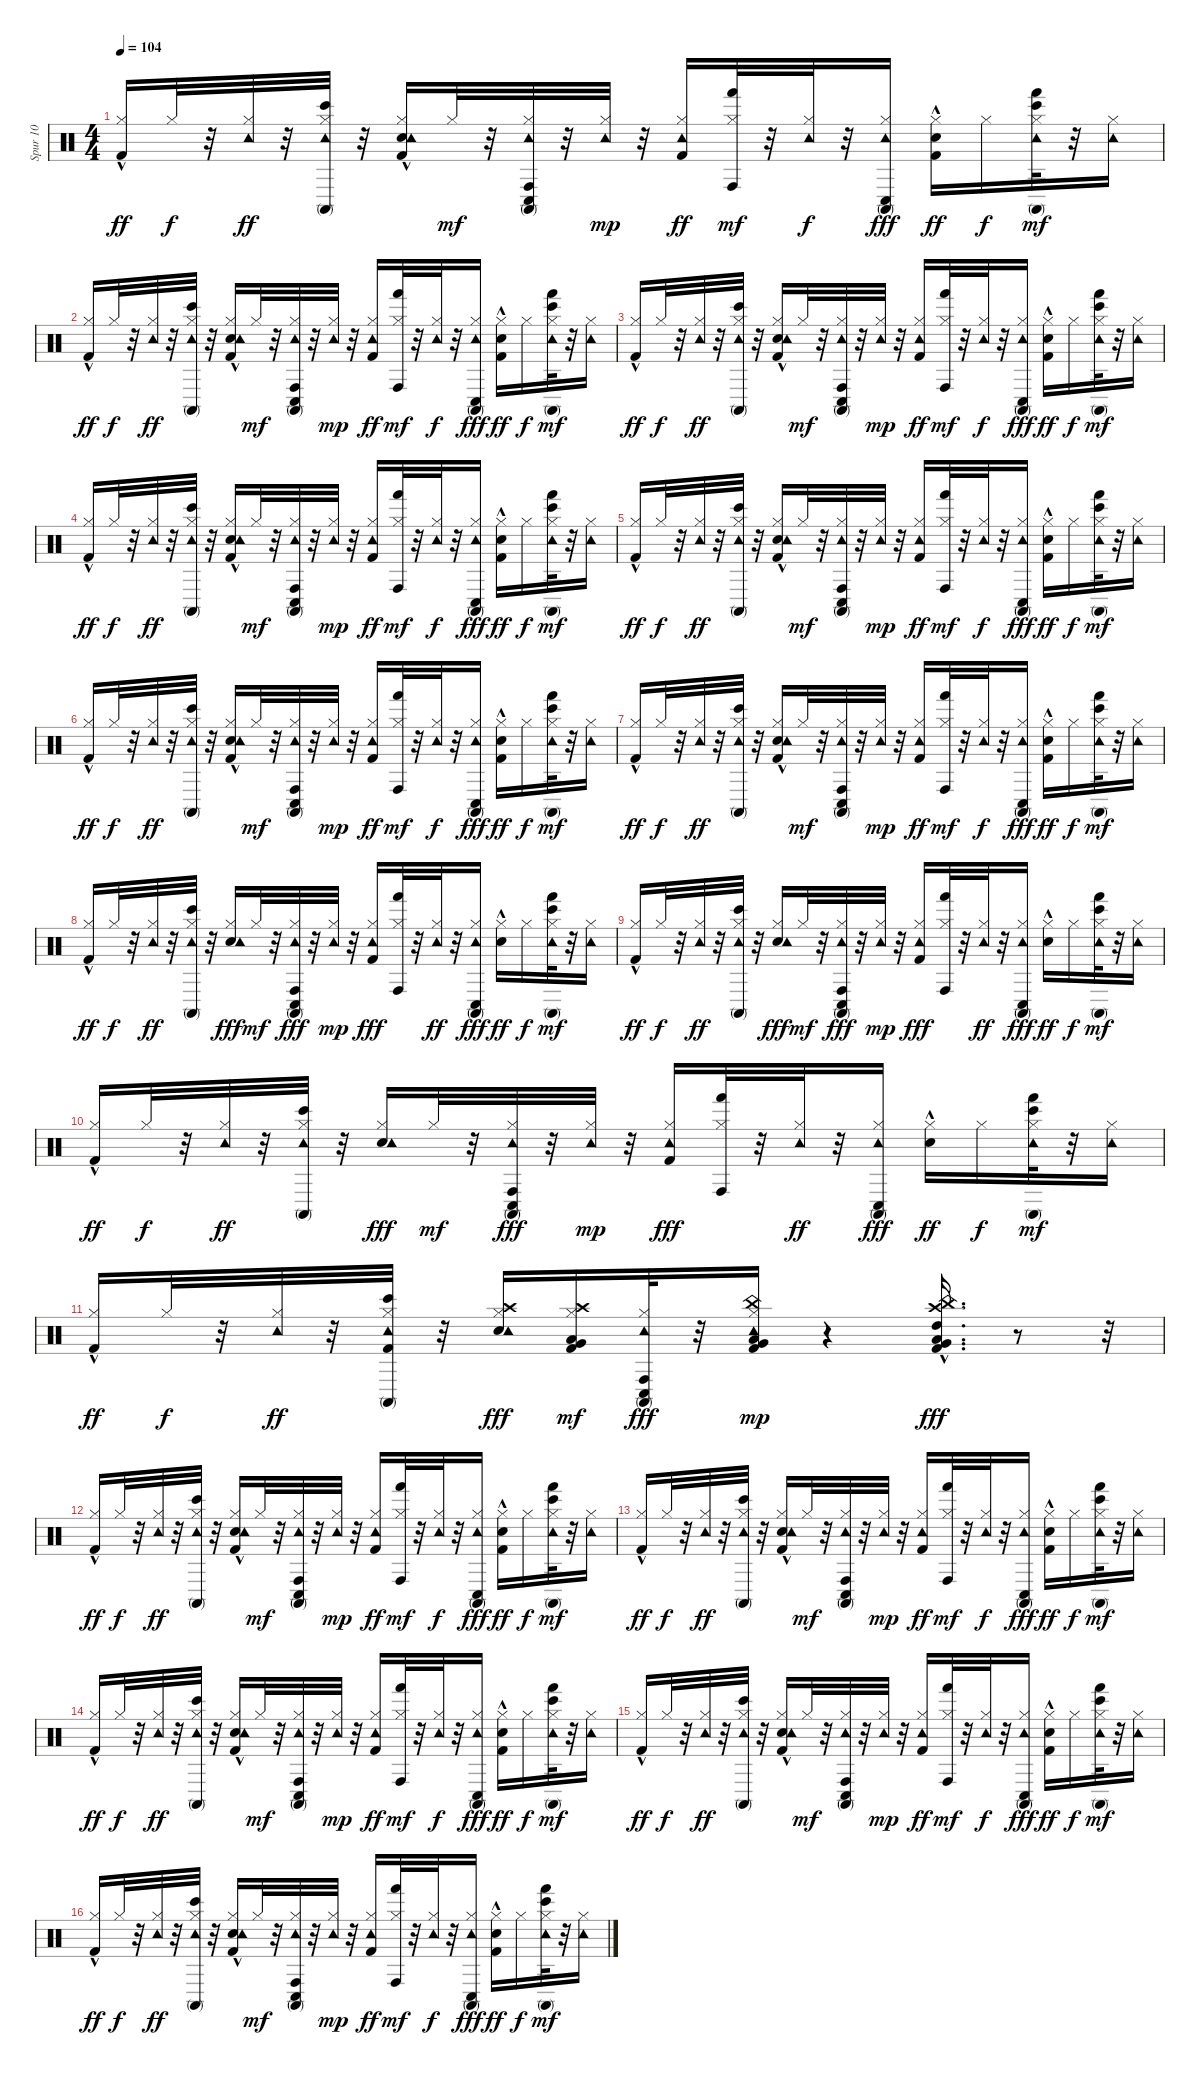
\track ("Spur 10" "Spur 10") {instrument percussion}
\staff {score}
\articulation defaults
\ts (4 4)
\tempo 104
\clef neutral
\ks c
("Kick (hit) 2"{hac} "Hi-Hat (closed)").16{dy ff} "Hi-Hat (closed)".32{dy f} r.32 ("Tambourine (hit)" "Hi-Hat (closed)").32{dy ff} r.32 ("Bongo High (hit)" "Conga high (mute)" "Tambourine (hit)" "Hi-Hat (closed)").32 r.32 ("Electric Snare (hit)" "Kick (hit) 2"{hac} "Tambourine (hit)" "Hi-Hat (closed)").16 "Hi-Hat (closed)".32{dy mf} r.32 ("Conga high (hit)" "Conga low (hit)" "Conga high (mute)" "Tambourine (hit)" "Hi-Hat (closed)").32 r.32 ("Tambourine (hit)" "Hi-Hat (closed)").32{dy mp} r.32 ("Kick (hit) 2" "Tambourine (hit)" "Hi-Hat (closed)").16{dy ff} ("Hand (hit)" "Conga high (hit)" "Hi-Hat (closed)").32{dy mf} r.32 ("Tambourine (hit)" "Hi-Hat (closed)").32{dy f} r.32 ("Conga high (mute)" "Conga low (hit)" "Tambourine (hit)" "Hi-Hat (closed)").16{dy fff} ("Electric Snare (hit)"{hac} "Kick (hit) 2" "Hi-Hat (closed)").16{dy ff} "Hi-Hat (closed)".16{dy f} ("Hand (hit)" "Bongo High (hit)" "Conga high (mute)" "Tambourine (hit)" "Hi-Hat (closed)").32{dy mf} r.32 ("Tambourine (hit)" "Hi-Hat (closed)").16 |
("Kick (hit) 2"{hac} "Hi-Hat (closed)").16{dy ff} "Hi-Hat (closed)".32{dy f} r.32 ("Tambourine (hit)" "Hi-Hat (closed)").32{dy ff} r.32 ("Bongo High (hit)" "Conga high (mute)" "Tambourine (hit)" "Hi-Hat (closed)").32 r.32 ("Electric Snare (hit)" "Kick (hit) 2"{hac} "Tambourine (hit)" "Hi-Hat (closed)").16 "Hi-Hat (closed)".32{dy mf} r.32 ("Conga high (hit)" "Conga low (hit)" "Conga high (mute)" "Tambourine (hit)" "Hi-Hat (closed)").32 r.32 ("Tambourine (hit)" "Hi-Hat (closed)").32{dy mp} r.32 ("Kick (hit) 2" "Tambourine (hit)" "Hi-Hat (closed)").16{dy ff} ("Hand (hit)" "Conga high (hit)" "Hi-Hat (closed)").32{dy mf} r.32 ("Tambourine (hit)" "Hi-Hat (closed)").32{dy f} r.32 ("Conga high (mute)" "Conga low (hit)" "Tambourine (hit)" "Hi-Hat (closed)").16{dy fff} ("Electric Snare (hit)"{hac} "Kick (hit) 2" "Hi-Hat (closed)").16{dy ff} "Hi-Hat (closed)".16{dy f} ("Hand (hit)" "Bongo High (hit)" "Conga high (mute)" "Tambourine (hit)" "Hi-Hat (closed)").32{dy mf} r.32 ("Tambourine (hit)" "Hi-Hat (closed)").16 |
("Kick (hit) 2"{hac} "Hi-Hat (closed)").16{dy ff} "Hi-Hat (closed)".32{dy f} r.32 ("Tambourine (hit)" "Hi-Hat (closed)").32{dy ff} r.32 ("Bongo High (hit)" "Conga high (mute)" "Tambourine (hit)" "Hi-Hat (closed)").32 r.32 ("Electric Snare (hit)" "Kick (hit) 2"{hac} "Tambourine (hit)" "Hi-Hat (closed)").16 "Hi-Hat (closed)".32{dy mf} r.32 ("Conga high (hit)" "Conga low (hit)" "Conga high (mute)" "Tambourine (hit)" "Hi-Hat (closed)").32 r.32 ("Tambourine (hit)" "Hi-Hat (closed)").32{dy mp} r.32 ("Kick (hit) 2" "Tambourine (hit)" "Hi-Hat (closed)").16{dy ff} ("Hand (hit)" "Conga high (hit)" "Hi-Hat (closed)").32{dy mf} r.32 ("Tambourine (hit)" "Hi-Hat (closed)").32{dy f} r.32 ("Conga high (mute)" "Conga low (hit)" "Tambourine (hit)" "Hi-Hat (closed)").16{dy fff} ("Electric Snare (hit)"{hac} "Kick (hit) 2" "Hi-Hat (closed)").16{dy ff} "Hi-Hat (closed)".16{dy f} ("Hand (hit)" "Bongo High (hit)" "Conga high (mute)" "Tambourine (hit)" "Hi-Hat (closed)").32{dy mf} r.32 ("Tambourine (hit)" "Hi-Hat (closed)").16 |
("Kick (hit) 2"{hac} "Hi-Hat (closed)").16{dy ff} "Hi-Hat (closed)".32{dy f} r.32 ("Tambourine (hit)" "Hi-Hat (closed)").32{dy ff} r.32 ("Bongo High (hit)" "Conga high (mute)" "Tambourine (hit)" "Hi-Hat (closed)").32 r.32 ("Electric Snare (hit)" "Kick (hit) 2"{hac} "Tambourine (hit)" "Hi-Hat (closed)").16 "Hi-Hat (closed)".32{dy mf} r.32 ("Conga high (hit)" "Conga low (hit)" "Conga high (mute)" "Tambourine (hit)" "Hi-Hat (closed)").32 r.32 ("Tambourine (hit)" "Hi-Hat (closed)").32{dy mp} r.32 ("Kick (hit) 2" "Tambourine (hit)" "Hi-Hat (closed)").16{dy ff} ("Hand (hit)" "Conga high (hit)" "Hi-Hat (closed)").32{dy mf} r.32 ("Tambourine (hit)" "Hi-Hat (closed)").32{dy f} r.32 ("Conga high (mute)" "Conga low (hit)" "Tambourine (hit)" "Hi-Hat (closed)").16{dy fff} ("Electric Snare (hit)"{hac} "Kick (hit) 2" "Hi-Hat (closed)").16{dy ff} "Hi-Hat (closed)".16{dy f} ("Hand (hit)" "Bongo High (hit)" "Conga high (mute)" "Tambourine (hit)" "Hi-Hat (closed)").32{dy mf} r.32 ("Tambourine (hit)" "Hi-Hat (closed)").16 |
("Kick (hit) 2"{hac} "Hi-Hat (closed)").16{dy ff} "Hi-Hat (closed)".32{dy f} r.32 ("Tambourine (hit)" "Hi-Hat (closed)").32{dy ff} r.32 ("Bongo High (hit)" "Conga high (mute)" "Tambourine (hit)" "Hi-Hat (closed)").32 r.32 ("Electric Snare (hit)" "Kick (hit) 2"{hac} "Tambourine (hit)" "Hi-Hat (closed)").16 "Hi-Hat (closed)".32{dy mf} r.32 ("Conga high (hit)" "Conga low (hit)" "Conga high (mute)" "Tambourine (hit)" "Hi-Hat (closed)").32 r.32 ("Tambourine (hit)" "Hi-Hat (closed)").32{dy mp} r.32 ("Kick (hit) 2" "Tambourine (hit)" "Hi-Hat (closed)").16{dy ff} ("Hand (hit)" "Conga high (hit)" "Hi-Hat (closed)").32{dy mf} r.32 ("Tambourine (hit)" "Hi-Hat (closed)").32{dy f} r.32 ("Conga high (mute)" "Conga low (hit)" "Tambourine (hit)" "Hi-Hat (closed)").16{dy fff} ("Electric Snare (hit)"{hac} "Kick (hit) 2" "Hi-Hat (closed)").16{dy ff} "Hi-Hat (closed)".16{dy f} ("Hand (hit)" "Bongo High (hit)" "Conga high (mute)" "Tambourine (hit)" "Hi-Hat (closed)").32{dy mf} r.32 ("Tambourine (hit)" "Hi-Hat (closed)").16 |
("Kick (hit) 2"{hac} "Hi-Hat (closed)").16{dy ff} "Hi-Hat (closed)".32{dy f} r.32 ("Tambourine (hit)" "Hi-Hat (closed)").32{dy ff} r.32 ("Bongo High (hit)" "Conga high (mute)" "Tambourine (hit)" "Hi-Hat (closed)").32 r.32 ("Electric Snare (hit)" "Kick (hit) 2"{hac} "Tambourine (hit)" "Hi-Hat (closed)").16 "Hi-Hat (closed)".32{dy mf} r.32 ("Conga high (hit)" "Conga low (hit)" "Conga high (mute)" "Tambourine (hit)" "Hi-Hat (closed)").32 r.32 ("Tambourine (hit)" "Hi-Hat (closed)").32{dy mp} r.32 ("Kick (hit) 2" "Tambourine (hit)" "Hi-Hat (closed)").16{dy ff} ("Hand (hit)" "Conga high (hit)" "Hi-Hat (closed)").32{dy mf} r.32 ("Tambourine (hit)" "Hi-Hat (closed)").32{dy f} r.32 ("Conga high (mute)" "Conga low (hit)" "Tambourine (hit)" "Hi-Hat (closed)").16{dy fff} ("Electric Snare (hit)"{hac} "Kick (hit) 2" "Hi-Hat (closed)").16{dy ff} "Hi-Hat (closed)".16{dy f} ("Hand (hit)" "Bongo High (hit)" "Conga high (mute)" "Tambourine (hit)" "Hi-Hat (closed)").32{dy mf} r.32 ("Tambourine (hit)" "Hi-Hat (closed)").16 |
("Kick (hit) 2"{hac} "Hi-Hat (closed)").16{dy ff} "Hi-Hat (closed)".32{dy f} r.32 ("Tambourine (hit)" "Hi-Hat (closed)").32{dy ff} r.32 ("Bongo High (hit)" "Conga high (mute)" "Tambourine (hit)" "Hi-Hat (closed)").32 r.32 ("Electric Snare (hit)" "Kick (hit) 2"{hac} "Tambourine (hit)" "Hi-Hat (closed)").16 "Hi-Hat (closed)".32{dy mf} r.32 ("Conga high (hit)" "Conga low (hit)" "Conga high (mute)" "Tambourine (hit)" "Hi-Hat (closed)").32 r.32 ("Tambourine (hit)" "Hi-Hat (closed)").32{dy mp} r.32 ("Kick (hit) 2" "Tambourine (hit)" "Hi-Hat (closed)").16{dy ff} ("Hand (hit)" "Conga high (hit)" "Hi-Hat (closed)").32{dy mf} r.32 ("Tambourine (hit)" "Hi-Hat (closed)").32{dy f} r.32 ("Conga high (mute)" "Conga low (hit)" "Tambourine (hit)" "Hi-Hat (closed)").16{dy fff} ("Electric Snare (hit)"{hac} "Kick (hit) 2" "Hi-Hat (closed)").16{dy ff} "Hi-Hat (closed)".16{dy f} ("Hand (hit)" "Bongo High (hit)" "Conga high (mute)" "Tambourine (hit)" "Hi-Hat (closed)").32{dy mf} r.32 ("Tambourine (hit)" "Hi-Hat (closed)").16 |
("Kick (hit) 2"{hac} "Hi-Hat (closed)").16{dy ff} "Hi-Hat (closed)".32{dy f} r.32 ("Tambourine (hit)" "Hi-Hat (closed)").32{dy ff} r.32 ("Bongo High (hit)" "Conga high (mute)" "Tambourine (hit)" "Hi-Hat (closed)").32 r.32 ("Electric Snare (hit)" "Tambourine (hit)" "Hi-Hat (closed)").16{dy fff} "Hi-Hat (closed)".32{dy mf} r.32 ("Conga high (hit)" "Conga low (hit)" "Conga high (mute)" "Tambourine (hit)" "Hi-Hat (closed)").32{dy fff} r.32 ("Tambourine (hit)" "Hi-Hat (closed)").32{dy mp} r.32 ("Kick (hit) 2" "Tambourine (hit)" "Hi-Hat (closed)").16{dy fff} ("Hand (hit)" "Conga high (hit)" "Hi-Hat (closed)").32 r.32 ("Tambourine (hit)" "Hi-Hat (closed)").32{dy ff} r.32 ("Conga high (mute)" "Conga low (hit)" "Tambourine (hit)" "Hi-Hat (closed)").16{dy fff} ("Electric Snare (hit)"{hac} "Hi-Hat (closed)").16{dy ff} "Hi-Hat (closed)".16{dy f} ("Hand (hit)" "Bongo High (hit)" "Conga high (mute)" "Tambourine (hit)" "Hi-Hat (closed)").32{dy mf} r.32 ("Tambourine (hit)" "Hi-Hat (closed)").16 |
("Kick (hit) 2"{hac} "Hi-Hat (closed)").16{dy ff} "Hi-Hat (closed)".32{dy f} r.32 ("Tambourine (hit)" "Hi-Hat (closed)").32{dy ff} r.32 ("Bongo High (hit)" "Conga high (mute)" "Tambourine (hit)" "Hi-Hat (closed)").32 r.32 ("Electric Snare (hit)" "Tambourine (hit)" "Hi-Hat (closed)").16{dy fff} "Hi-Hat (closed)".32{dy mf} r.32 ("Conga high (hit)" "Conga low (hit)" "Conga high (mute)" "Tambourine (hit)" "Hi-Hat (closed)").32{dy fff} r.32 ("Tambourine (hit)" "Hi-Hat (closed)").32{dy mp} r.32 ("Kick (hit) 2" "Tambourine (hit)" "Hi-Hat (closed)").16{dy fff} ("Hand (hit)" "Conga high (hit)" "Hi-Hat (closed)").32 r.32 ("Tambourine (hit)" "Hi-Hat (closed)").32{dy ff} r.32 ("Conga high (mute)" "Conga low (hit)" "Tambourine (hit)" "Hi-Hat (closed)").16{dy fff} ("Electric Snare (hit)"{hac} "Hi-Hat (closed)").16{dy ff} "Hi-Hat (closed)".16{dy f} ("Hand (hit)" "Bongo High (hit)" "Conga high (mute)" "Tambourine (hit)" "Hi-Hat (closed)").32{dy mf} r.32 ("Tambourine (hit)" "Hi-Hat (closed)").16 |
("Kick (hit) 2"{hac} "Hi-Hat (closed)").16{dy ff} "Hi-Hat (closed)".32{dy f} r.32 ("Tambourine (hit)" "Hi-Hat (closed)").32{dy ff} r.32 ("Bongo High (hit)" "Conga high (mute)" "Tambourine (hit)" "Hi-Hat (closed)").32 r.32 ("Electric Snare (hit)" "Tambourine (hit)" "Hi-Hat (closed)").16{dy fff} "Hi-Hat (closed)".32{dy mf} r.32 ("Conga high (hit)" "Conga low (hit)" "Conga high (mute)" "Tambourine (hit)" "Hi-Hat (closed)").32{dy fff} r.32 ("Tambourine (hit)" "Hi-Hat (closed)").32{dy mp} r.32 ("Kick (hit) 2" "Tambourine (hit)" "Hi-Hat (closed)").16{dy fff} ("Hand (hit)" "Conga high (hit)" "Hi-Hat (closed)").32 r.32 ("Tambourine (hit)" "Hi-Hat (closed)").32{dy ff} r.32 ("Conga high (mute)" "Conga low (hit)" "Tambourine (hit)" "Hi-Hat (closed)").16{dy fff} ("Electric Snare (hit)"{hac} "Hi-Hat (closed)").16{dy ff} "Hi-Hat (closed)".16{dy f} ("Hand (hit)" "Bongo High (hit)" "Conga high (mute)" "Tambourine (hit)" "Hi-Hat (closed)").32{dy mf} r.32 ("Tambourine (hit)" "Hi-Hat (closed)").16 |
("Kick (hit) 2"{hac} "Hi-Hat (closed)").16{dy ff} "Hi-Hat (closed)".32{dy f} r.32 ("Tambourine (hit)" "Hi-Hat (closed)").32{dy ff} r.32 ("Kick (hit) 2" "Bongo High (hit)" "Conga high (mute)" "Tambourine (hit)" "Hi-Hat (closed)").32 r.32 ("Crash high (hit)" "Electric Snare (hit)" "Tambourine (hit)" "Hi-Hat (closed)").16{dy fff} ("Kick (hit) 2" "Low Tom (hit)" "Very Low Tom (hit)" "Crash high (hit)" "Hi-Hat (closed)").16{dy mf} ("Conga high (hit)" "Conga low (hit)" "Conga high (mute)" "Tambourine (hit)" "Hi-Hat (closed)").32{dy fff} r.32 ("Kick (hit) 2" "Very Low Tom (hit)" "Low Tom (hit)" "China (hit)" "Tambourine (hit)" "Hi-Hat (closed)").16{dy mp} r.4 ("China (hit)"{hac} "Crash high (hit)" "High Tom (hit)" "Very Low Tom (hit)" "Low Floor Tom (hit)" "Kick (hit) 2").16{d dy fff} r.8 r.32 |
("Kick (hit) 2"{hac} "Hi-Hat (closed)").16{dy ff} "Hi-Hat (closed)".32{dy f} r.32 ("Tambourine (hit)" "Hi-Hat (closed)").32{dy ff} r.32 ("Bongo High (hit)" "Conga high (mute)" "Tambourine (hit)" "Hi-Hat (closed)").32 r.32 ("Electric Snare (hit)" "Kick (hit) 2"{hac} "Tambourine (hit)" "Hi-Hat (closed)").16 "Hi-Hat (closed)".32{dy mf} r.32 ("Conga high (hit)" "Conga low (hit)" "Conga high (mute)" "Tambourine (hit)" "Hi-Hat (closed)").32 r.32 ("Tambourine (hit)" "Hi-Hat (closed)").32{dy mp} r.32 ("Kick (hit) 2" "Tambourine (hit)" "Hi-Hat (closed)").16{dy ff} ("Hand (hit)" "Conga high (hit)" "Hi-Hat (closed)").32{dy mf} r.32 ("Tambourine (hit)" "Hi-Hat (closed)").32{dy f} r.32 ("Conga high (mute)" "Conga low (hit)" "Tambourine (hit)" "Hi-Hat (closed)").16{dy fff} ("Electric Snare (hit)"{hac} "Kick (hit) 2" "Hi-Hat (closed)").16{dy ff} "Hi-Hat (closed)".16{dy f} ("Hand (hit)" "Bongo High (hit)" "Conga high (mute)" "Tambourine (hit)" "Hi-Hat (closed)").32{dy mf} r.32 ("Tambourine (hit)" "Hi-Hat (closed)").16 |
("Kick (hit) 2"{hac} "Hi-Hat (closed)").16{dy ff} "Hi-Hat (closed)".32{dy f} r.32 ("Tambourine (hit)" "Hi-Hat (closed)").32{dy ff} r.32 ("Bongo High (hit)" "Conga high (mute)" "Tambourine (hit)" "Hi-Hat (closed)").32 r.32 ("Electric Snare (hit)" "Kick (hit) 2"{hac} "Tambourine (hit)" "Hi-Hat (closed)").16 "Hi-Hat (closed)".32{dy mf} r.32 ("Conga high (hit)" "Conga low (hit)" "Conga high (mute)" "Tambourine (hit)" "Hi-Hat (closed)").32 r.32 ("Tambourine (hit)" "Hi-Hat (closed)").32{dy mp} r.32 ("Kick (hit) 2" "Tambourine (hit)" "Hi-Hat (closed)").16{dy ff} ("Hand (hit)" "Conga high (hit)" "Hi-Hat (closed)").32{dy mf} r.32 ("Tambourine (hit)" "Hi-Hat (closed)").32{dy f} r.32 ("Conga high (mute)" "Conga low (hit)" "Tambourine (hit)" "Hi-Hat (closed)").16{dy fff} ("Electric Snare (hit)"{hac} "Kick (hit) 2" "Hi-Hat (closed)").16{dy ff} "Hi-Hat (closed)".16{dy f} ("Hand (hit)" "Bongo High (hit)" "Conga high (mute)" "Tambourine (hit)" "Hi-Hat (closed)").32{dy mf} r.32 ("Tambourine (hit)" "Hi-Hat (closed)").16 |
("Kick (hit) 2"{hac} "Hi-Hat (closed)").16{dy ff} "Hi-Hat (closed)".32{dy f} r.32 ("Tambourine (hit)" "Hi-Hat (closed)").32{dy ff} r.32 ("Bongo High (hit)" "Conga high (mute)" "Tambourine (hit)" "Hi-Hat (closed)").32 r.32 ("Electric Snare (hit)" "Kick (hit) 2"{hac} "Tambourine (hit)" "Hi-Hat (closed)").16 "Hi-Hat (closed)".32{dy mf} r.32 ("Conga high (hit)" "Conga low (hit)" "Conga high (mute)" "Tambourine (hit)" "Hi-Hat (closed)").32 r.32 ("Tambourine (hit)" "Hi-Hat (closed)").32{dy mp} r.32 ("Kick (hit) 2" "Tambourine (hit)" "Hi-Hat (closed)").16{dy ff} ("Hand (hit)" "Conga high (hit)" "Hi-Hat (closed)").32{dy mf} r.32 ("Tambourine (hit)" "Hi-Hat (closed)").32{dy f} r.32 ("Conga high (mute)" "Conga low (hit)" "Tambourine (hit)" "Hi-Hat (closed)").16{dy fff} ("Electric Snare (hit)"{hac} "Kick (hit) 2" "Hi-Hat (closed)").16{dy ff} "Hi-Hat (closed)".16{dy f} ("Hand (hit)" "Bongo High (hit)" "Conga high (mute)" "Tambourine (hit)" "Hi-Hat (closed)").32{dy mf} r.32 ("Tambourine (hit)" "Hi-Hat (closed)").16 |
("Kick (hit) 2"{hac} "Hi-Hat (closed)").16{dy ff} "Hi-Hat (closed)".32{dy f} r.32 ("Tambourine (hit)" "Hi-Hat (closed)").32{dy ff} r.32 ("Bongo High (hit)" "Conga high (mute)" "Tambourine (hit)" "Hi-Hat (closed)").32 r.32 ("Electric Snare (hit)" "Kick (hit) 2"{hac} "Tambourine (hit)" "Hi-Hat (closed)").16 "Hi-Hat (closed)".32{dy mf} r.32 ("Conga high (hit)" "Conga low (hit)" "Conga high (mute)" "Tambourine (hit)" "Hi-Hat (closed)").32 r.32 ("Tambourine (hit)" "Hi-Hat (closed)").32{dy mp} r.32 ("Kick (hit) 2" "Tambourine (hit)" "Hi-Hat (closed)").16{dy ff} ("Hand (hit)" "Conga high (hit)" "Hi-Hat (closed)").32{dy mf} r.32 ("Tambourine (hit)" "Hi-Hat (closed)").32{dy f} r.32 ("Conga high (mute)" "Conga low (hit)" "Tambourine (hit)" "Hi-Hat (closed)").16{dy fff} ("Electric Snare (hit)"{hac} "Kick (hit) 2" "Hi-Hat (closed)").16{dy ff} "Hi-Hat (closed)".16{dy f} ("Hand (hit)" "Bongo High (hit)" "Conga high (mute)" "Tambourine (hit)" "Hi-Hat (closed)").32{dy mf} r.32 ("Tambourine (hit)" "Hi-Hat (closed)").16 |
("Kick (hit) 2"{hac} "Hi-Hat (closed)").16{dy ff} "Hi-Hat (closed)".32{dy f} r.32 ("Tambourine (hit)" "Hi-Hat (closed)").32{dy ff} r.32 ("Bongo High (hit)" "Conga high (mute)" "Tambourine (hit)" "Hi-Hat (closed)").32 r.32 ("Electric Snare (hit)" "Kick (hit) 2"{hac} "Tambourine (hit)" "Hi-Hat (closed)").16 "Hi-Hat (closed)".32{dy mf} r.32 ("Conga high (hit)" "Conga low (hit)" "Conga high (mute)" "Tambourine (hit)" "Hi-Hat (closed)").32 r.32 ("Tambourine (hit)" "Hi-Hat (closed)").32{dy mp} r.32 ("Kick (hit) 2" "Tambourine (hit)" "Hi-Hat (closed)").16{dy ff} ("Hand (hit)" "Conga high (hit)" "Hi-Hat (closed)").32{dy mf} r.32 ("Tambourine (hit)" "Hi-Hat (closed)").32{dy f} r.32 ("Conga high (mute)" "Conga low (hit)" "Tambourine (hit)" "Hi-Hat (closed)").16{dy fff} ("Electric Snare (hit)"{hac} "Kick (hit) 2" "Hi-Hat (closed)").16{dy ff} "Hi-Hat (closed)".16{dy f} ("Hand (hit)" "Bongo High (hit)" "Conga high (mute)" "Tambourine (hit)" "Hi-Hat (closed)").32{dy mf} r.32 ("Tambourine (hit)" "Hi-Hat (closed)").16
